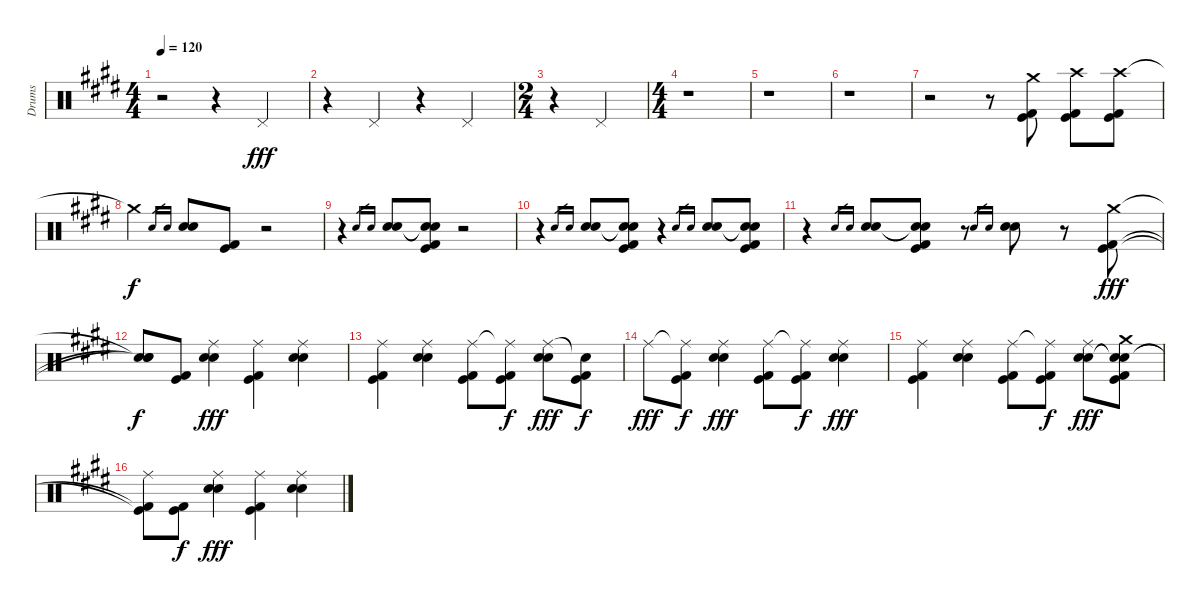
\track ("Drums" "Drums") {instrument percussion}
\staff {score}
\articulation defaults
\ts (4 4)
\tempo 120
\clef neutral
\ks e
r.2{dy f} r.4 "Pedal Hi-Hat (hit)".4{dy fff} |
r.4 "Pedal Hi-Hat (hit)".4 r.4 "Pedal Hi-Hat (hit)".4 |
\ts (2 4)
r.4 "Pedal Hi-Hat (hit)".4 |
\ts (4 4)
r.1 |
r.1 |
r.1 |
r.2 r.8 ("Crash medium (hit)" "Kick (hit)" "Kick (hit) 2").8 ("Crash high (hit)" "Kick (hit)" "Kick (hit) 2").8 ("Crash high (hit)" "Kick (hit)" "Kick (hit) 2").8 |
"Crash medium (hit)"{t}.4{dy f} "Electric Snare (hit)".16{gr} "Snare (hit) 2".16{gr} ("Electric Snare (hit)" "Snare (hit) 2").8 ("Kick (hit)" "Kick (hit) 2").8 r.2 |
r.4 "Electric Snare (hit)".16{gr} "Snare (hit) 2".16{gr} ("Electric Snare (hit)" "Snare (hit) 2").8 ("Snare (hit)"{t} "Snare (hit)"{t} "Kick (hit)" "Kick (hit) 2").8 r.2 |
r.4 "Electric Snare (hit)".16{gr} "Snare (hit) 2".16{gr} ("Electric Snare (hit)" "Snare (hit) 2").8 ("Snare (hit)"{t} "Snare (hit)"{t} "Kick (hit)" "Kick (hit) 2").8 r.4 "Electric Snare (hit)".16{gr} "Snare (hit) 2".16{gr} ("Electric Snare (hit)" "Snare (hit) 2").8 ("Snare (hit)"{t} "Snare (hit)"{t} "Kick (hit)" "Kick (hit) 2").8 |
r.4 "Electric Snare (hit)".16{gr} "Snare (hit) 2".16{gr} ("Electric Snare (hit)" "Snare (hit) 2").8 ("Snare (hit)"{t} "Snare (hit)"{t} "Kick (hit)" "Kick (hit) 2").8 r.8 "Electric Snare (hit)".16{gr} "Snare (hit) 2".16{gr} ("Electric Snare (hit)" "Snare (hit) 2").8 r.8 ("Crash medium (hit)" "Kick (hit)" "Kick (hit) 2").8{dy fff} |
("Snare (hit)"{t} "Snare (hit)"{t} "Snare (hit)"{t}).8{dy f} ("Kick (hit)" "Kick (hit) 2").8 ("Ride (middle)" "Electric Snare (hit)" "Snare (hit) 2").4{dy fff} ("Ride (middle)" "Kick (hit)" "Kick (hit) 2").4 ("Ride (middle)" "Electric Snare (hit)" "Snare (hit) 2").4 |
("Ride (middle)" "Kick (hit)" "Kick (hit) 2").4 ("Ride (middle)" "Electric Snare (hit)" "Snare (hit) 2").4 ("Ride (middle)" "Kick (hit)" "Kick (hit) 2").8 ("Ride (middle)"{t} "Kick (hit)" "Kick (hit) 2").8{dy f} ("Ride (middle)" "Electric Snare (hit)" "Snare (hit) 2").8{dy fff} ("Snare (hit)"{t} "Kick (hit)" "Kick (hit) 2").8{dy f} |
"Ride (middle)".8{dy fff} ("Ride (middle)"{t} "Kick (hit)" "Kick (hit) 2").8{dy f} ("Ride (middle)" "Electric Snare (hit)" "Snare (hit) 2").4{dy fff} ("Ride (middle)" "Kick (hit)" "Kick (hit) 2").8 ("Ride (middle)"{t} "Kick (hit)" "Kick (hit) 2").8{dy f} ("Ride (middle)" "Electric Snare (hit)" "Snare (hit) 2").4{dy fff} |
("Ride (middle)" "Kick (hit)" "Kick (hit) 2").4 ("Ride (middle)" "Electric Snare (hit)" "Snare (hit) 2").4 ("Ride (middle)" "Kick (hit)" "Kick (hit) 2").8 ("Ride (middle)"{t} "Kick (hit)" "Kick (hit) 2").8{dy f} ("Ride (middle)" "Electric Snare (hit)" "Snare (hit) 2").8{dy fff} ("Crash medium (hit)" "Snare (hit)"{t} "Snare (hit)"{t} "Kick (hit)" "Kick (hit) 2").8 |
("Ride (middle)" "Kick (hit)"{t} "Kick (hit) 2"{t}).8 ("Kick (hit)" "Kick (hit) 2").8{dy f} ("Ride (middle)" "Electric Snare (hit)" "Snare (hit) 2").4{dy fff} ("Ride (middle)" "Kick (hit)" "Kick (hit) 2").4 ("Ride (middle)" "Electric Snare (hit)" "Snare (hit) 2").4
